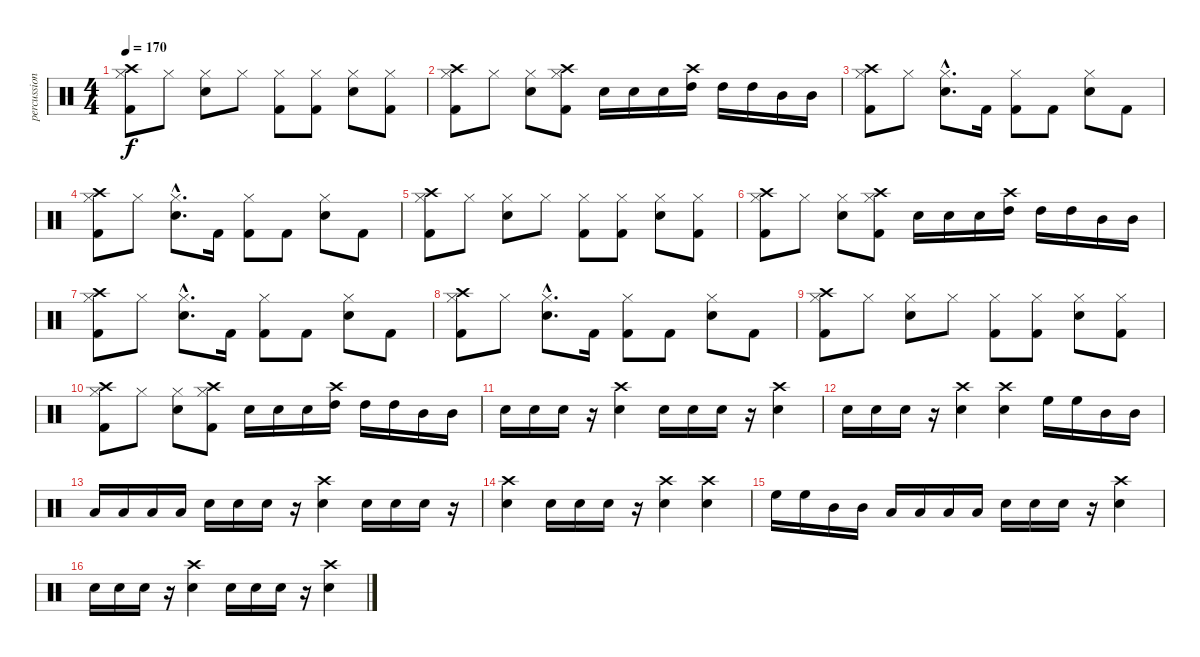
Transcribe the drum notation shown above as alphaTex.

\track ("percussion" "percussion") {instrument percussion}
\staff {score}
\articulation defaults
\ts (4 4)
\tempo 170
\clef neutral
\ks c
("Crash high (hit)" "Hi-Hat (closed)" "Kick (hit) 2").8{dy f} "Hi-Hat (closed)".8 ("Hi-Hat (closed)" "Snare (hit) 2").8 "Hi-Hat (closed)".8 ("Hi-Hat (closed)" "Kick (hit) 2").8 ("Hi-Hat (closed)" "Kick (hit) 2").8 ("Hi-Hat (closed)" "Snare (hit) 2").8 ("Hi-Hat (closed)" "Kick (hit) 2").8 |
("Crash high (hit)" "Hi-Hat (closed)" "Kick (hit) 2").8 "Hi-Hat (closed)".8 ("Hi-Hat (closed)" "Snare (hit) 2").8 ("Crash high (hit)" "Hi-Hat (closed)" "Kick (hit) 2").8 "Snare (hit) 2".16 "Snare (hit) 2".16 "Snare (hit) 2".16 ("Crash high (hit)" "High Tom (hit)").16 "High Tom (hit)".16 "High Tom (hit)".16 "Mid Tom (hit)".16 "Mid Tom (hit)".16 |
("Crash high (hit)" "Hi-Hat (closed)" "Kick (hit) 2").8 "Hi-Hat (closed)".8 ("Hi-Hat (closed)"{hac} "Snare (hit) 2"{hac}).8{d} "Kick (hit) 2".16 ("Hi-Hat (closed)" "Kick (hit) 2").8 "Kick (hit) 2".8 ("Hi-Hat (closed)" "Snare (hit) 2").8 "Kick (hit) 2".8 |
("Crash high (hit)" "Hi-Hat (closed)" "Kick (hit) 2").8 "Hi-Hat (closed)".8 ("Hi-Hat (closed)"{hac} "Snare (hit) 2"{hac}).8{d} "Kick (hit) 2".16 ("Hi-Hat (closed)" "Kick (hit) 2").8 "Kick (hit) 2".8 ("Hi-Hat (closed)" "Snare (hit) 2").8 "Kick (hit) 2".8 |
("Crash high (hit)" "Hi-Hat (closed)" "Kick (hit) 2").8 "Hi-Hat (closed)".8 ("Hi-Hat (closed)" "Snare (hit) 2").8 "Hi-Hat (closed)".8 ("Hi-Hat (closed)" "Kick (hit) 2").8 ("Hi-Hat (closed)" "Kick (hit) 2").8 ("Hi-Hat (closed)" "Snare (hit) 2").8 ("Hi-Hat (closed)" "Kick (hit) 2").8 |
("Crash high (hit)" "Hi-Hat (closed)" "Kick (hit) 2").8 "Hi-Hat (closed)".8 ("Hi-Hat (closed)" "Snare (hit) 2").8 ("Crash high (hit)" "Hi-Hat (closed)" "Kick (hit) 2").8 "Snare (hit) 2".16 "Snare (hit) 2".16 "Snare (hit) 2".16 ("Crash high (hit)" "High Tom (hit)").16 "High Tom (hit)".16 "High Tom (hit)".16 "Mid Tom (hit)".16 "Mid Tom (hit)".16 |
("Crash high (hit)" "Hi-Hat (closed)" "Kick (hit) 2").8 "Hi-Hat (closed)".8 ("Hi-Hat (closed)"{hac} "Snare (hit) 2"{hac}).8{d} "Kick (hit) 2".16 ("Hi-Hat (closed)" "Kick (hit) 2").8 "Kick (hit) 2".8 ("Hi-Hat (closed)" "Snare (hit) 2").8 "Kick (hit) 2".8 |
("Crash high (hit)" "Hi-Hat (closed)" "Kick (hit) 2").8 "Hi-Hat (closed)".8 ("Hi-Hat (closed)"{hac} "Snare (hit) 2"{hac}).8{d} "Kick (hit) 2".16 ("Hi-Hat (closed)" "Kick (hit) 2").8 "Kick (hit) 2".8 ("Hi-Hat (closed)" "Snare (hit) 2").8 "Kick (hit) 2".8 |
("Crash high (hit)" "Hi-Hat (closed)" "Kick (hit) 2").8 "Hi-Hat (closed)".8 ("Hi-Hat (closed)" "Snare (hit) 2").8 "Hi-Hat (closed)".8 ("Hi-Hat (closed)" "Kick (hit) 2").8 ("Hi-Hat (closed)" "Kick (hit) 2").8 ("Hi-Hat (closed)" "Snare (hit) 2").8 ("Hi-Hat (closed)" "Kick (hit) 2").8 |
("Crash high (hit)" "Hi-Hat (closed)" "Kick (hit) 2").8 "Hi-Hat (closed)".8 ("Hi-Hat (closed)" "Snare (hit) 2").8 ("Crash high (hit)" "Hi-Hat (closed)" "Kick (hit) 2").8 "Snare (hit) 2".16 "Snare (hit) 2".16 "Snare (hit) 2".16 ("Crash high (hit)" "High Tom (hit)").16 "High Tom (hit)".16 "High Tom (hit)".16 "Mid Tom (hit)".16 "Mid Tom (hit)".16 |
"Snare (hit) 2".16 "Snare (hit) 2".16 "Snare (hit) 2".16 r.16 ("Crash high (hit)" "Snare (hit) 2").4 "Snare (hit) 2".16 "Snare (hit) 2".16 "Snare (hit) 2".16 r.16 ("Crash high (hit)" "Snare (hit) 2").4 |
"Snare (hit) 2".16 "Snare (hit) 2".16 "Snare (hit) 2".16 r.16 ("Crash high (hit)" "Snare (hit) 2").4 ("Crash high (hit)" "Snare (hit) 2").4 "High Floor Tom (hit)".16 "High Floor Tom (hit)".16 "Mid Tom (hit)".16 "Mid Tom (hit)".16 |
"Low Tom (hit)".16 "Low Tom (hit)".16 "Low Floor Tom (hit)".16 "Low Floor Tom (hit)".16 "Snare (hit) 2".16 "Snare (hit) 2".16 "Snare (hit) 2".16 r.16 ("Crash high (hit)" "Snare (hit) 2").4 "Snare (hit) 2".16 "Snare (hit) 2".16 "Snare (hit) 2".16 r.16 |
("Crash high (hit)" "Snare (hit) 2").4 "Snare (hit) 2".16 "Snare (hit) 2".16 "Snare (hit) 2".16 r.16 ("Crash high (hit)" "Snare (hit) 2").4 ("Crash high (hit)" "Snare (hit) 2").4 |
"High Floor Tom (hit)".16 "High Floor Tom (hit)".16 "Mid Tom (hit)".16 "Mid Tom (hit)".16 "Low Tom (hit)".16 "Low Tom (hit)".16 "Low Floor Tom (hit)".16 "Low Floor Tom (hit)".16 "Snare (hit) 2".16 "Snare (hit) 2".16 "Snare (hit) 2".16 r.16 ("Crash high (hit)" "Snare (hit) 2").4 |
"Snare (hit) 2".16 "Snare (hit) 2".16 "Snare (hit) 2".16 r.16 ("Crash high (hit)" "Snare (hit) 2").4 "Snare (hit) 2".16 "Snare (hit) 2".16 "Snare (hit) 2".16 r.16 ("Crash high (hit)" "Snare (hit) 2").4
